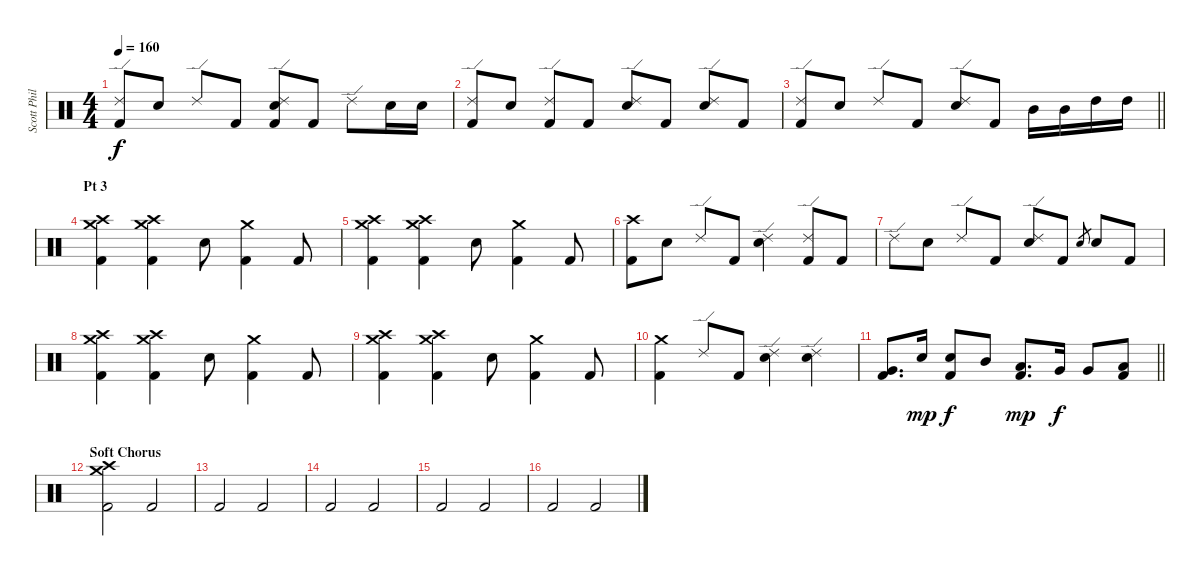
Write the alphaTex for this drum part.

\track ("Scott Phillips [Drums]" "Scott Phil") {instrument percussion}
\staff {score}
\articulation defaults
\ts (4 4)
\tempo 160
\clef neutral
\ks c
("Ride (edge) 2" "Kick (hit) 2").8{dy f} "Electric Snare (hit)".8 "Ride (edge) 2".8 "Kick (hit) 2".8 ("Ride (edge) 2" "Electric Snare (hit)" "Kick (hit) 2").8 "Kick (hit) 2".8 "Ride (edge) 2".8 "Electric Snare (hit)".16 "Electric Snare (hit)".16 |
("Ride (edge) 2" "Kick (hit) 2").8 "Electric Snare (hit)".8 ("Ride (edge) 2" "Kick (hit) 2").8 "Kick (hit) 2".8 ("Ride (edge) 2" "Electric Snare (hit)").8 "Kick (hit) 2".8 ("Ride (edge) 2" "Electric Snare (hit)").8 "Kick (hit) 2".8 |
\barLineRight lightlight
("Ride (edge) 2" "Kick (hit) 2").8 "Electric Snare (hit)".8 "Ride (edge) 2".8 "Kick (hit) 2".8 ("Ride (edge) 2" "Electric Snare (hit)").8 "Kick (hit) 2".8 "Mid Tom (hit)".16 "Mid Tom (hit)".16 "High Tom (hit)".16 "High Tom (hit)".16 |
\section ("" "Pt 3")
("Crash high (hit)" "Crash medium (hit)" "Kick (hit) 2").4 ("Crash high (hit)" "Crash medium (hit)" "Kick (hit) 2").4 "Electric Snare (hit)".8 ("Crash medium (hit)" "Kick (hit) 2").4 "Kick (hit) 2".8 |
("Crash high (hit)" "Crash medium (hit)" "Kick (hit) 2").4 ("Crash high (hit)" "Crash medium (hit)" "Kick (hit) 2").4 "Electric Snare (hit)".8 ("Crash medium (hit)" "Kick (hit) 2").4 "Kick (hit) 2".8 |
("Crash high (hit)" "Kick (hit) 2").8 "Electric Snare (hit)".8 "Ride (edge) 2".8 "Kick (hit) 2".8 ("Ride (edge) 2" "Electric Snare (hit)").4 ("Ride (edge) 2" "Kick (hit) 2").8 "Kick (hit) 2".8 |
"Ride (edge) 2".8 "Electric Snare (hit)".8 "Ride (edge) 2".8 "Kick (hit) 2".8 ("Ride (edge) 2" "Electric Snare (hit)").8 "Kick (hit) 2".8 "Electric Snare (hit)".8{gr} "Electric Snare (hit)".8 "Kick (hit) 2".8 |
("Crash high (hit)" "Crash medium (hit)" "Kick (hit) 2").4 ("Crash high (hit)" "Crash medium (hit)" "Kick (hit) 2").4 "Electric Snare (hit)".8 ("Crash medium (hit)" "Kick (hit) 2").4 "Kick (hit) 2".8 |
("Crash high (hit)" "Crash medium (hit)" "Kick (hit) 2").4 ("Crash high (hit)" "Crash medium (hit)" "Kick (hit) 2").4 "Electric Snare (hit)".8 ("Crash medium (hit)" "Kick (hit) 2").4 "Kick (hit) 2".8 |
("Crash medium (hit)" "Kick (hit) 2").4 "Ride (edge) 2".8 "Kick (hit) 2".8 ("Ride (edge) 2" "Electric Snare (hit)").4 ("Ride (edge) 2" "Electric Snare (hit)").4 |
\barLineRight lightlight
("Very Low Tom (hit)" "Kick (hit) 2").8{d} "Electric Snare (hit)".16{dy mp} ("Electric Snare (hit)" "Kick (hit) 2").8{dy f} "Mid Tom (hit)".8 ("Low Tom (hit)" "Kick (hit) 2").8{d dy mp} "Very Low Tom (hit)".16{dy f} "Very Low Tom (hit)".8 ("Low Floor Tom (hit)" "Kick (hit) 2").8 |
\section ("" "Soft Chorus")
("Crash high (hit)" "Crash medium (hit)" "Kick (hit) 2").2 "Kick (hit) 2".2 |
"Kick (hit) 2".2 "Kick (hit) 2".2 |
"Kick (hit) 2".2 "Kick (hit) 2".2 |
"Kick (hit) 2".2 "Kick (hit) 2".2 |
"Kick (hit) 2".2 "Kick (hit) 2".2
